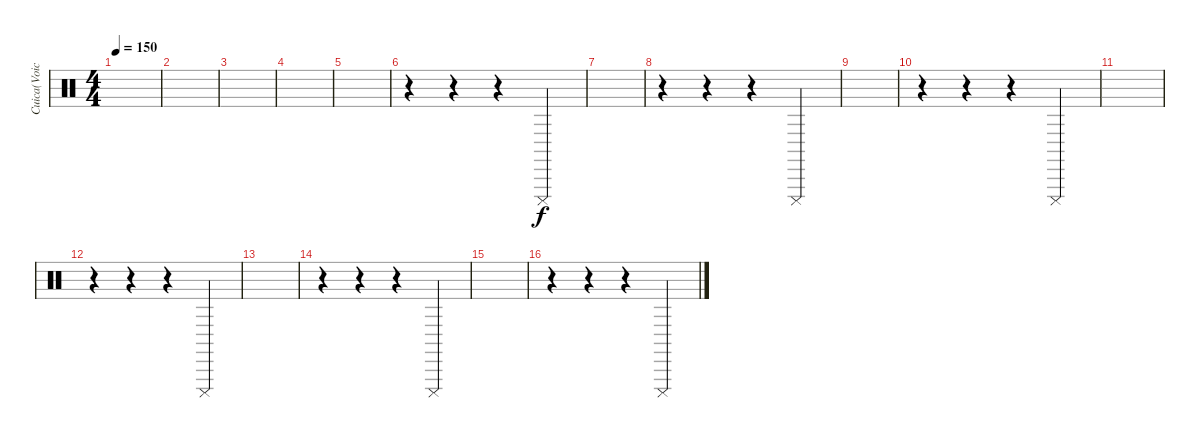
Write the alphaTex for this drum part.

\track ("Cuica(Voice)" "Cuica(Voic") {instrument percussion}
\staff {score}
\articulation defaults
\ts (4 4)
\tempo 150
\clef neutral
\ks c
|
|
|
|
|
r.4 r.4 r.4 "Cuica (mute)".4 |
|
r.4 r.4 r.4 "Cuica (mute)".4 |
|
r.4 r.4 r.4 "Cuica (mute)".4 |
|
r.4 r.4 r.4 "Cuica (mute)".4 |
|
r.4 r.4 r.4 "Cuica (mute)".4 |
|
r.4 r.4 r.4 "Cuica (mute)".4
